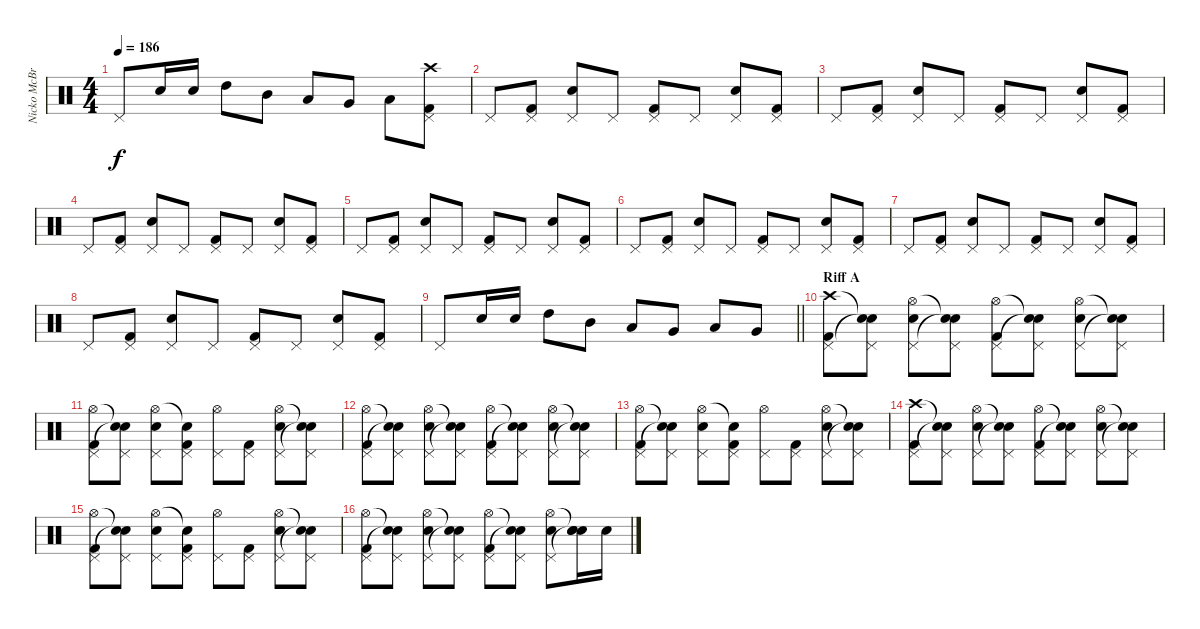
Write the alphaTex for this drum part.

\track ("Nicko McBrain" "Nicko McBr") {instrument percussion}
\staff {score}
\articulation defaults
\ts (4 4)
\tempo 186
\clef neutral
\ks c "Pedal Hi-Hat (hit)".8{dy f} "Snare (hit) 2".16 "Snare (hit) 2".16 "High Tom (hit)".8 "Mid Tom (hit)".8 "Low Tom (hit)".8 "Very Low Tom (hit)".8 "Low Floor Tom (hit)".8
("Kick (hit) 2" "Pedal Hi-Hat (hit)" "Crash high (hit)").8 |
"Pedal Hi-Hat (hit)".8 ("Kick (hit) 2" "Pedal Hi-Hat (hit)").8 ("Snare (hit) 2" "Pedal Hi-Hat (hit)").8 "Pedal Hi-Hat (hit)".8 ("Kick (hit) 2" "Pedal Hi-Hat (hit)").8 "Pedal Hi-Hat (hit)".8 ("Snare (hit) 2" "Pedal Hi-Hat (hit)").8 ("Kick (hit) 2" "Pedal Hi-Hat (hit)").8 |
"Pedal Hi-Hat (hit)".8 ("Kick (hit) 2" "Pedal Hi-Hat (hit)").8 ("Snare (hit) 2" "Pedal Hi-Hat (hit)").8 "Pedal Hi-Hat (hit)".8 ("Kick (hit) 2" "Pedal Hi-Hat (hit)").8 "Pedal Hi-Hat (hit)".8 ("Snare (hit) 2" "Pedal Hi-Hat (hit)").8 ("Kick (hit) 2" "Pedal Hi-Hat (hit)").8 |
"Pedal Hi-Hat (hit)".8 ("Kick (hit) 2" "Pedal Hi-Hat (hit)").8 ("Snare (hit) 2" "Pedal Hi-Hat (hit)").8 "Pedal Hi-Hat (hit)".8 ("Kick (hit) 2" "Pedal Hi-Hat (hit)").8 "Pedal Hi-Hat (hit)".8 ("Snare (hit) 2" "Pedal Hi-Hat (hit)").8 ("Kick (hit) 2" "Pedal Hi-Hat (hit)").8 |
"Pedal Hi-Hat (hit)".8 ("Kick (hit) 2" "Pedal Hi-Hat (hit)").8 ("Snare (hit) 2" "Pedal Hi-Hat (hit)").8 "Pedal Hi-Hat (hit)".8 ("Kick (hit) 2" "Pedal Hi-Hat (hit)").8 "Pedal Hi-Hat (hit)".8 ("Snare (hit) 2" "Pedal Hi-Hat (hit)").8 ("Kick (hit) 2" "Pedal Hi-Hat (hit)").8 |
"Pedal Hi-Hat (hit)".8 ("Kick (hit) 2" "Pedal Hi-Hat (hit)").8 ("Snare (hit) 2" "Pedal Hi-Hat (hit)").8 "Pedal Hi-Hat (hit)".8 ("Kick (hit) 2" "Pedal Hi-Hat (hit)").8 "Pedal Hi-Hat (hit)".8 ("Snare (hit) 2" "Pedal Hi-Hat (hit)").8 ("Kick (hit) 2" "Pedal Hi-Hat (hit)").8 |
"Pedal Hi-Hat (hit)".8 ("Kick (hit) 2" "Pedal Hi-Hat (hit)").8 ("Snare (hit) 2" "Pedal Hi-Hat (hit)").8 "Pedal Hi-Hat (hit)".8 ("Kick (hit) 2" "Pedal Hi-Hat (hit)").8 "Pedal Hi-Hat (hit)".8 ("Snare (hit) 2" "Pedal Hi-Hat (hit)").8 ("Kick (hit) 2" "Pedal Hi-Hat (hit)").8 |
"Pedal Hi-Hat (hit)".8 ("Kick (hit) 2" "Pedal Hi-Hat (hit)").8 ("Snare (hit) 2" "Pedal Hi-Hat (hit)").8 "Pedal Hi-Hat (hit)".8 ("Kick (hit) 2" "Pedal Hi-Hat (hit)").8 "Pedal Hi-Hat (hit)".8 ("Snare (hit) 2" "Pedal Hi-Hat (hit)").8 ("Kick (hit) 2" "Pedal Hi-Hat (hit)").8 |
\barLineRight lightlight "Pedal Hi-Hat (hit)".8 "Snare (hit) 2".16 "Snare (hit) 2".16 "High Tom (hit)".8 "Mid Tom (hit)".8 "Low Tom (hit)".8 "Very Low Tom (hit)".8 "Low Floor Tom (hit)".8 "Very Low Tom (hit)".8
|
\section ("" "Riff A")
("Kick (hit) 2" "Pedal Hi-Hat (hit)" "Crash high (hit)").8 ("Pedal Hi-Hat (hit)" "Snare (hit)"{t} "Snare (hit)"{t}).8 ("Snare (hit) 2" "Pedal Hi-Hat (hit)" "Hi-Hat (open)").8 ("Pedal Hi-Hat (hit)" "Snare (hit)"{t} "Snare (hit)"{t}).8 ("Kick (hit) 2" "Pedal Hi-Hat (hit)" "Hi-Hat (open)").8 ("Pedal Hi-Hat (hit)" "Snare (hit)"{t} "Snare (hit)"{t}).8 ("Snare (hit) 2" "Pedal Hi-Hat (hit)" "Hi-Hat (open)").8 ("Pedal Hi-Hat (hit)" "Snare (hit)"{t} "Snare (hit)"{t}).8 |
("Kick (hit) 2" "Pedal Hi-Hat (hit)" "Hi-Hat (open)").8 ("Pedal Hi-Hat (hit)" "Snare (hit)"{t} "Snare (hit)"{t}).8 ("Snare (hit) 2" "Pedal Hi-Hat (hit)" "Hi-Hat (open)").8 ("Kick (hit) 2" "Pedal Hi-Hat (hit)" "Snare (hit)"{t}).8 ("Pedal Hi-Hat (hit)" "Hi-Hat (open)").8 ("Kick (hit) 2" "Pedal Hi-Hat (hit)").8 ("Snare (hit) 2" "Pedal Hi-Hat (hit)" "Hi-Hat (open)").8 ("Pedal Hi-Hat (hit)" "Snare (hit)"{t} "Snare (hit)"{t}).8 |
("Kick (hit) 2" "Pedal Hi-Hat (hit)" "Hi-Hat (open)").8 ("Pedal Hi-Hat (hit)" "Snare (hit)"{t} "Snare (hit)"{t}).8 ("Snare (hit) 2" "Pedal Hi-Hat (hit)" "Hi-Hat (open)").8 ("Pedal Hi-Hat (hit)" "Snare (hit)"{t} "Snare (hit)"{t}).8 ("Kick (hit) 2" "Pedal Hi-Hat (hit)" "Hi-Hat (open)").8 ("Pedal Hi-Hat (hit)" "Snare (hit)"{t} "Snare (hit)"{t}).8 ("Snare (hit) 2" "Pedal Hi-Hat (hit)" "Hi-Hat (open)").8 ("Pedal Hi-Hat (hit)" "Snare (hit)"{t} "Snare (hit)"{t}).8 |
("Kick (hit) 2" "Pedal Hi-Hat (hit)" "Hi-Hat (open)").8 ("Pedal Hi-Hat (hit)" "Snare (hit)"{t} "Snare (hit)"{t}).8 ("Snare (hit) 2" "Pedal Hi-Hat (hit)" "Hi-Hat (open)").8 ("Kick (hit) 2" "Pedal Hi-Hat (hit)" "Snare (hit)"{t}).8 ("Pedal Hi-Hat (hit)" "Hi-Hat (open)").8 ("Kick (hit) 2" "Pedal Hi-Hat (hit)").8 ("Snare (hit) 2" "Pedal Hi-Hat (hit)" "Hi-Hat (open)").8 ("Pedal Hi-Hat (hit)" "Snare (hit)"{t} "Snare (hit)"{t}).8 |
("Kick (hit) 2" "Pedal Hi-Hat (hit)" "Crash high (hit)").8 ("Pedal Hi-Hat (hit)" "Snare (hit)"{t} "Snare (hit)"{t}).8 ("Snare (hit) 2" "Pedal Hi-Hat (hit)" "Hi-Hat (open)").8 ("Pedal Hi-Hat (hit)" "Snare (hit)"{t} "Snare (hit)"{t}).8 ("Kick (hit) 2" "Pedal Hi-Hat (hit)" "Hi-Hat (open)").8 ("Pedal Hi-Hat (hit)" "Snare (hit)"{t} "Snare (hit)"{t}).8 ("Snare (hit) 2" "Pedal Hi-Hat (hit)" "Hi-Hat (open)").8 ("Pedal Hi-Hat (hit)" "Snare (hit)"{t} "Snare (hit)"{t}).8 |
("Kick (hit) 2" "Pedal Hi-Hat (hit)" "Hi-Hat (open)").8 ("Pedal Hi-Hat (hit)" "Snare (hit)"{t} "Snare (hit)"{t}).8 ("Snare (hit) 2" "Pedal Hi-Hat (hit)" "Hi-Hat (open)").8 ("Kick (hit) 2" "Pedal Hi-Hat (hit)" "Snare (hit)"{t}).8 ("Pedal Hi-Hat (hit)" "Hi-Hat (open)").8 ("Kick (hit) 2" "Pedal Hi-Hat (hit)").8 ("Snare (hit) 2" "Pedal Hi-Hat (hit)" "Hi-Hat (open)").8 ("Pedal Hi-Hat (hit)" "Snare (hit)"{t} "Snare (hit)"{t}).8 |
("Kick (hit) 2" "Pedal Hi-Hat (hit)" "Hi-Hat (open)").8 ("Pedal Hi-Hat (hit)" "Snare (hit)"{t} "Snare (hit)"{t}).8 ("Snare (hit) 2" "Pedal Hi-Hat (hit)" "Hi-Hat (open)").8 ("Pedal Hi-Hat (hit)" "Snare (hit)"{t} "Snare (hit)"{t}).8 ("Kick (hit) 2" "Pedal Hi-Hat (hit)" "Hi-Hat (open)").8 ("Pedal Hi-Hat (hit)" "Snare (hit)"{t} "Snare (hit)"{t}).8 ("Snare (hit) 2" "Pedal Hi-Hat (hit)" "Hi-Hat (open)").8 ("Snare (hit) 2" "Snare (hit)"{t} "Snare (hit)"{t}).16 "Snare (hit) 2".16
